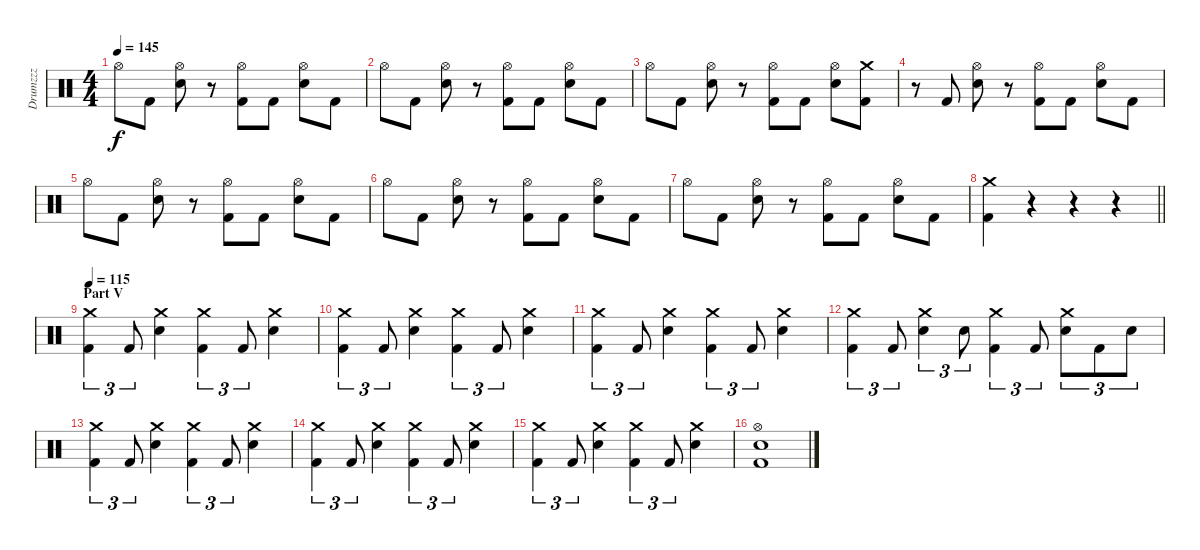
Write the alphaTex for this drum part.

\track ("Drumzzz" "Drumzzz") {instrument percussion}
\staff {score}
\articulation defaults
\ts (4 4)
\tempo 145
\clef neutral
\ks c "Hi-Hat (open)".8{dy f} "Kick (hit) 2".8
("Hi-Hat (open)" "Electric Snare (hit)").8 r.8 ("Hi-Hat (open)" "Kick (hit) 2").8 "Kick (hit) 2".8 ("Hi-Hat (open)" "Electric Snare (hit)").8 "Kick (hit) 2".8 |
"Hi-Hat (open)".8 "Kick (hit) 2".8 ("Hi-Hat (open)" "Electric Snare (hit)").8 r.8 ("Hi-Hat (open)" "Kick (hit) 2").8 "Kick (hit) 2".8 ("Hi-Hat (open)" "Electric Snare (hit)").8 "Kick (hit) 2".8 |
"Hi-Hat (open)".8 "Kick (hit) 2".8 ("Hi-Hat (open)" "Electric Snare (hit)").8 r.8 ("Hi-Hat (open)" "Kick (hit) 2").8 "Kick (hit) 2".8 ("Hi-Hat (open)" "Electric Snare (hit)").8 ("Crash medium (hit)" "Kick (hit) 2").8 |
r.8 "Kick (hit) 2".8 ("Hi-Hat (open)" "Electric Snare (hit)").8 r.8 ("Hi-Hat (open)" "Kick (hit) 2").8 "Kick (hit) 2".8 ("Hi-Hat (open)" "Electric Snare (hit)").8 "Kick (hit) 2".8 |
"Hi-Hat (open)".8 "Kick (hit) 2".8 ("Hi-Hat (open)" "Electric Snare (hit)").8 r.8 ("Hi-Hat (open)" "Kick (hit) 2").8 "Kick (hit) 2".8 ("Hi-Hat (open)" "Electric Snare (hit)").8 "Kick (hit) 2".8 |
"Hi-Hat (open)".8 "Kick (hit) 2".8 ("Hi-Hat (open)" "Electric Snare (hit)").8 r.8 ("Hi-Hat (open)" "Kick (hit) 2").8 "Kick (hit) 2".8 ("Hi-Hat (open)" "Electric Snare (hit)").8 "Kick (hit) 2".8 |
"Hi-Hat (open)".8 "Kick (hit) 2".8 ("Hi-Hat (open)" "Electric Snare (hit)").8 r.8 ("Hi-Hat (open)" "Kick (hit) 2").8 "Kick (hit) 2".8 ("Hi-Hat (open)" "Electric Snare (hit)").8 "Kick (hit) 2".8 |
\barLineRight lightlight
("Crash medium (hit)" "Kick (hit) 2").4 r.4 r.4 r.4 |
\section ("" "Part V")
\tempo 115
("Crash medium (hit)" "Kick (hit) 2").4{tu (3 2)} "Kick (hit) 2".8{tu (3 2)} ("Crash medium (hit)" "Electric Snare (hit)").4 ("Crash medium (hit)" "Kick (hit) 2").4{tu (3 2)} "Kick (hit) 2".8{tu (3 2)} ("Crash medium (hit)" "Electric Snare (hit)").4 |
("Crash medium (hit)" "Kick (hit) 2").4{tu (3 2)} "Kick (hit) 2".8{tu (3 2)} ("Crash medium (hit)" "Electric Snare (hit)").4 ("Crash medium (hit)" "Kick (hit) 2").4{tu (3 2)} "Kick (hit) 2".8{tu (3 2)} ("Crash medium (hit)" "Electric Snare (hit)").4 |
("Crash medium (hit)" "Kick (hit) 2").4{tu (3 2)} "Kick (hit) 2".8{tu (3 2)} ("Crash medium (hit)" "Electric Snare (hit)").4 ("Crash medium (hit)" "Kick (hit) 2").4{tu (3 2)} "Kick (hit) 2".8{tu (3 2)} ("Crash medium (hit)" "Electric Snare (hit)").4 |
("Crash medium (hit)" "Kick (hit) 2").4{tu (3 2)} "Kick (hit) 2".8{tu (3 2)} ("Crash medium (hit)" "Electric Snare (hit)").4{tu (3 2)} "Electric Snare (hit)".8{tu (3 2)} ("Crash medium (hit)" "Kick (hit) 2").4{tu (3 2)} "Kick (hit) 2".8{tu (3 2)} ("Crash medium (hit)" "Electric Snare (hit)").8{tu (3 2)} "Kick (hit) 2".8{tu (3 2)} "Electric Snare (hit)".8{tu (3 2)} |
("Crash medium (hit)" "Kick (hit) 2").4{tu (3 2)} "Kick (hit) 2".8{tu (3 2)} ("Crash medium (hit)" "Electric Snare (hit)").4 ("Crash medium (hit)" "Kick (hit) 2").4{tu (3 2)} "Kick (hit) 2".8{tu (3 2)} ("Crash medium (hit)" "Electric Snare (hit)").4 |
("Crash medium (hit)" "Kick (hit) 2").4{tu (3 2)} "Kick (hit) 2".8{tu (3 2)} ("Crash medium (hit)" "Electric Snare (hit)").4 ("Crash medium (hit)" "Kick (hit) 2").4{tu (3 2)} "Kick (hit) 2".8{tu (3 2)} ("Crash medium (hit)" "Electric Snare (hit)").4 |
("Crash medium (hit)" "Kick (hit) 2").4{tu (3 2)} "Kick (hit) 2".8{tu (3 2)} ("Crash medium (hit)" "Electric Snare (hit)").4 ("Crash medium (hit)" "Kick (hit) 2").4{tu (3 2)} "Kick (hit) 2".8{tu (3 2)} ("Crash medium (hit)" "Electric Snare (hit)").4 |
("Hi-Hat (open)" "Electric Snare (hit)" "Kick (hit) 2").1
